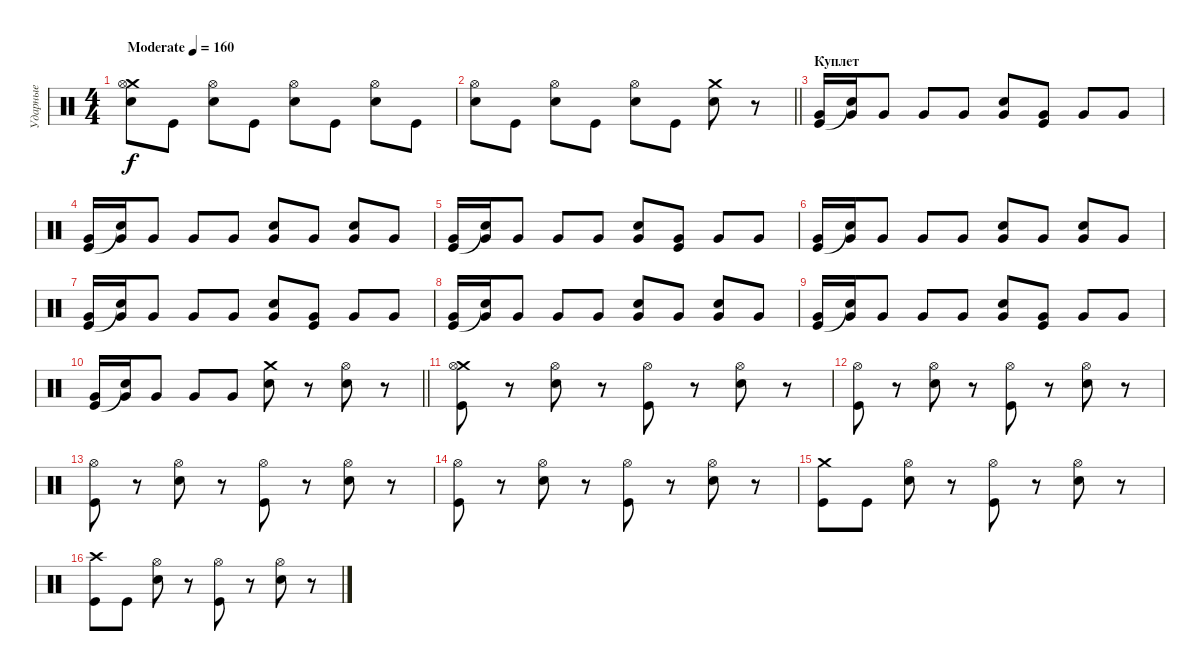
\track ("Ударные" "Ударные") {instrument percussion}
\staff {score}
\articulation defaults
\ts (4 4)
\tempo (160 "Moderate")
\clef neutral
\ks c
("Crash medium (hit)" "Hi-Hat (open)" "Electric Snare (hit)").8{dy f} "Kick (hit)".8 ("Hi-Hat (open)" "Electric Snare (hit)").8 "Kick (hit)".8 ("Hi-Hat (open)" "Electric Snare (hit)").8 "Kick (hit)".8 ("Hi-Hat (open)" "Electric Snare (hit)").8 "Kick (hit)".8 |
\barLineRight lightlight
("Hi-Hat (open)" "Electric Snare (hit)").8 "Kick (hit)".8 ("Hi-Hat (open)" "Electric Snare (hit)").8 "Kick (hit)".8 ("Hi-Hat (open)" "Electric Snare (hit)").8 "Kick (hit)".8 ("Crash medium (hit)" "Electric Snare (hit)").8 r.8 |
\section ("" "Куплет")
("Very Low Tom (hit)" "Kick (hit)").16 ("Very Low Tom (hit)" "Snare (hit)"{t}).16 "Very Low Tom (hit)".8 "Very Low Tom (hit)".8 "Very Low Tom (hit)".8 ("Very Low Tom (hit)" "Electric Snare (hit)").8 ("Very Low Tom (hit)" "Kick (hit)").8 "Very Low Tom (hit)".8 "Very Low Tom (hit)".8 |
("Very Low Tom (hit)" "Kick (hit)").16 ("Very Low Tom (hit)" "Snare (hit)"{t}).16 "Very Low Tom (hit)".8 "Very Low Tom (hit)".8 "Very Low Tom (hit)".8 ("Very Low Tom (hit)" "Electric Snare (hit)").8 "Very Low Tom (hit)".8 ("Very Low Tom (hit)" "Electric Snare (hit)").8 "Very Low Tom (hit)".8 |
("Very Low Tom (hit)" "Kick (hit)").16 ("Very Low Tom (hit)" "Snare (hit)"{t}).16 "Very Low Tom (hit)".8 "Very Low Tom (hit)".8 "Very Low Tom (hit)".8 ("Very Low Tom (hit)" "Electric Snare (hit)").8 ("Very Low Tom (hit)" "Kick (hit)").8 "Very Low Tom (hit)".8 "Very Low Tom (hit)".8 |
("Very Low Tom (hit)" "Kick (hit)").16 ("Very Low Tom (hit)" "Snare (hit)"{t}).16 "Very Low Tom (hit)".8 "Very Low Tom (hit)".8 "Very Low Tom (hit)".8 ("Very Low Tom (hit)" "Electric Snare (hit)").8 "Very Low Tom (hit)".8 ("Very Low Tom (hit)" "Electric Snare (hit)").8 "Very Low Tom (hit)".8 |
("Very Low Tom (hit)" "Kick (hit)").16 ("Very Low Tom (hit)" "Snare (hit)"{t}).16 "Very Low Tom (hit)".8 "Very Low Tom (hit)".8 "Very Low Tom (hit)".8 ("Very Low Tom (hit)" "Electric Snare (hit)").8 ("Very Low Tom (hit)" "Kick (hit)").8 "Very Low Tom (hit)".8 "Very Low Tom (hit)".8 |
("Very Low Tom (hit)" "Kick (hit)").16 ("Very Low Tom (hit)" "Snare (hit)"{t}).16 "Very Low Tom (hit)".8 "Very Low Tom (hit)".8 "Very Low Tom (hit)".8 ("Very Low Tom (hit)" "Electric Snare (hit)").8 "Very Low Tom (hit)".8 ("Very Low Tom (hit)" "Electric Snare (hit)").8 "Very Low Tom (hit)".8 |
("Very Low Tom (hit)" "Kick (hit)").16 ("Very Low Tom (hit)" "Snare (hit)"{t}).16 "Very Low Tom (hit)".8 "Very Low Tom (hit)".8 "Very Low Tom (hit)".8 ("Very Low Tom (hit)" "Electric Snare (hit)").8 ("Very Low Tom (hit)" "Kick (hit)").8 "Very Low Tom (hit)".8 "Very Low Tom (hit)".8 |
\barLineRight lightlight
("Very Low Tom (hit)" "Kick (hit)").16 ("Very Low Tom (hit)" "Snare (hit)"{t}).16 "Very Low Tom (hit)".8 "Very Low Tom (hit)".8 "Very Low Tom (hit)".8 ("Crash medium (hit)" "Electric Snare (hit)").8 r.8 ("Hi-Hat (open)" "Electric Snare (hit)").8 r.8 |
\section ("" " ")
("Crash medium (hit)" "Hi-Hat (open)" "Kick (hit)").8 r.8 ("Hi-Hat (open)" "Electric Snare (hit)").8 r.8 ("Hi-Hat (open)" "Kick (hit)").8 r.8 ("Hi-Hat (open)" "Electric Snare (hit)").8 r.8 |
("Hi-Hat (open)" "Kick (hit)").8 r.8 ("Hi-Hat (open)" "Electric Snare (hit)").8 r.8 ("Hi-Hat (open)" "Kick (hit)").8 r.8 ("Hi-Hat (open)" "Electric Snare (hit)").8 r.8 |
("Hi-Hat (open)" "Kick (hit)").8 r.8 ("Hi-Hat (open)" "Electric Snare (hit)").8 r.8 ("Hi-Hat (open)" "Kick (hit)").8 r.8 ("Hi-Hat (open)" "Electric Snare (hit)").8 r.8 |
("Hi-Hat (open)" "Kick (hit)").8 r.8 ("Hi-Hat (open)" "Electric Snare (hit)").8 r.8 ("Hi-Hat (open)" "Kick (hit)").8 r.8 ("Hi-Hat (open)" "Electric Snare (hit)").8 r.8 |
("Crash medium (hit)" "Kick (hit)").8 "Kick (hit)".8 ("Hi-Hat (open)" "Electric Snare (hit)").8 r.8 ("Hi-Hat (open)" "Kick (hit)").8 r.8 ("Hi-Hat (open)" "Electric Snare (hit)").8 r.8 |
("Crash high (hit)" "Kick (hit)").8 "Kick (hit)".8 ("Hi-Hat (open)" "Electric Snare (hit)").8 r.8 ("Hi-Hat (open)" "Kick (hit)").8 r.8 ("Hi-Hat (open)" "Electric Snare (hit)").8 r.8
